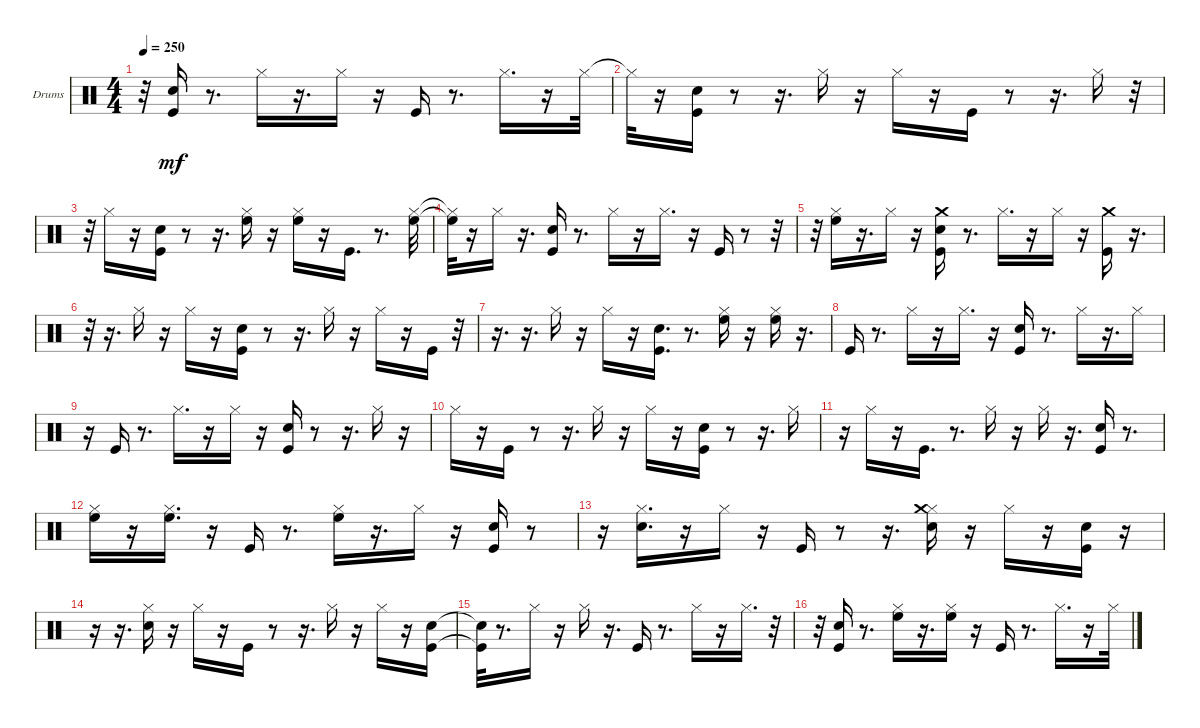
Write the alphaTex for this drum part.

\bracketExtendMode groupsimilarinstruments
\firstSystemTrackNameOrientation horizontal
\otherSystemsTrackNameOrientation horizontal
\track ("Drums" "Drums") {instrument percussion}
\staff {score}
\articulation defaults
\ts (4 4)
\tempo 250
\clef neutral
\ks c
r.32{dy mf} ("Kick (hit)" "Snare (hit) 2").16 r.8{d} "Hi-Hat (closed)".16 r.16{d} "Hi-Hat (closed)".16 r.16 "Kick (hit)".16 r.8{d} "Hi-Hat (closed)".16{d} r.16 "Hi-Hat (closed)".32 |
"Hi-Hat (closed)"{t}.32 r.16 ("Kick (hit)" "Snare (hit) 2").16 r.8 r.16{d} "Hi-Hat (closed)".16 r.16 "Hi-Hat (closed)".16 r.16 "Kick (hit)".16 r.8 r.16{d} "Hi-Hat (closed)".16 r.32 |
r.32 "Hi-Hat (closed)".16 r.16 ("Kick (hit)" "Snare (hit) 2").16 r.8 r.16{d} ("High Floor Tom (hit)" "Hi-Hat (closed)").16 r.16 ("High Floor Tom (hit)" "Hi-Hat (closed)").16 r.16 "Kick (hit)".16{d} r.8{d} ("High Floor Tom (hit)" "Hi-Hat (closed)").32 |
("High Floor Tom (hit)"{t} "Hi-Hat (closed)"{t}).32 r.16 "Hi-Hat (closed)".16 r.16{d} ("Kick (hit)" "Snare (hit) 2").16 r.8{d} "Hi-Hat (closed)".16 r.16 "Hi-Hat (closed)".16{d} r.16 "Kick (hit)".16 r.8 r.32 |
r.32 ("High Floor Tom (hit)" "Hi-Hat (closed)").16 r.16{d} "Hi-Hat (closed)".16 r.16 ("Kick (hit)" "Crash medium (hit)" "Snare (hit) 2").16 r.8{d} "Hi-Hat (closed)".16{d} r.16 "Hi-Hat (closed)".16 r.16 ("Kick (hit)" "Crash medium (hit)").16 r.16{d} |
r.32 r.16{d} "Hi-Hat (closed)".16 r.16 "Hi-Hat (closed)".16 r.16 ("Kick (hit)" "Snare (hit) 2").16 r.8 r.16{d} "Hi-Hat (closed)".16 r.16 "Hi-Hat (closed)".16 r.16 "Kick (hit)".16 r.32 |
r.16{d} r.16{d} "Hi-Hat (closed)".16 r.16 "Hi-Hat (closed)".16 r.16 ("Kick (hit)" "Snare (hit) 2").16{d} r.8{d} ("High Floor Tom (hit)" "Hi-Hat (closed)").16 r.16 ("High Floor Tom (hit)" "Hi-Hat (closed)").16 r.16{d} |
"Kick (hit)".16 r.8{d} "Hi-Hat (closed)".16 r.16 "Hi-Hat (closed)".16{d} r.16 ("Kick (hit)" "Snare (hit) 2").16 r.8{d} "Hi-Hat (closed)".16 r.16{d} "Hi-Hat (closed)".16 |
r.16 "Kick (hit)".16 r.8{d} "Hi-Hat (closed)".16{d} r.16 "Hi-Hat (closed)".16 r.16 ("Kick (hit)" "Snare (hit) 2").16 r.8 r.16{d} "Hi-Hat (closed)".16 r.16 |
"Hi-Hat (closed)".16 r.16 "Kick (hit)".16 r.8 r.16{d} "Hi-Hat (closed)".16 r.16 "Hi-Hat (closed)".16 r.16 ("Kick (hit)" "Snare (hit) 2").16 r.8 r.16{d} "Hi-Hat (closed)".16 |
r.16 "Hi-Hat (closed)".16 r.16 "Kick (hit)".16{d} r.8{d} "Hi-Hat (closed)".16 r.16 "Hi-Hat (closed)".16 r.16{d} ("Kick (hit)" "Snare (hit) 2").16 r.8{d} |
("High Floor Tom (hit)" "Hi-Hat (closed)").16 r.16 ("High Floor Tom (hit)" "Hi-Hat (closed)").16{d} r.16 "Kick (hit)".16 r.8{d} ("High Floor Tom (hit)" "Hi-Hat (closed)").16 r.16{d} "Hi-Hat (closed)".16 r.16 ("Kick (hit)" "Snare (hit) 2").16 r.8 |
r.16 ("Hi-Hat (closed)" "Snare (hit) 2").16{d} r.16 "Hi-Hat (closed)".16 r.16 "Kick (hit)".16 r.8 r.16{d} ("Hi-Hat (closed)" "Snare (hit) 2" "Crash medium (hit)").16 r.16 "Hi-Hat (closed)".16 r.16 ("Kick (hit)" "Snare (hit) 2").16 r.16 |
r.16 r.16{d} ("Hi-Hat (closed)" "Snare (hit) 2").16 r.16 "Hi-Hat (closed)".16 r.16 "Kick (hit)".16 r.8 r.16{d} "Hi-Hat (closed)".16 r.16 "Hi-Hat (closed)".16 r.16 ("Kick (hit)" "Snare (hit) 2").16 |
("Kick (hit)"{t} "Snare (hit) 2"{t}).32 r.8{d} "Hi-Hat (closed)".16 r.16 "Hi-Hat (closed)".16 r.16{d} "Kick (hit)".16 r.8{d} "Hi-Hat (closed)".16 r.16 "Hi-Hat (closed)".16{d} r.32 |
r.32 ("Kick (hit)" "Snare (hit) 2").16 r.8{d} ("High Floor Tom (hit)" "Hi-Hat (closed)").16 r.16{d} ("High Floor Tom (hit)" "Hi-Hat (closed)").16 r.16 "Kick (hit)".16 r.8{d} "Hi-Hat (closed)".16{d} r.16 "Hi-Hat (closed)".32
